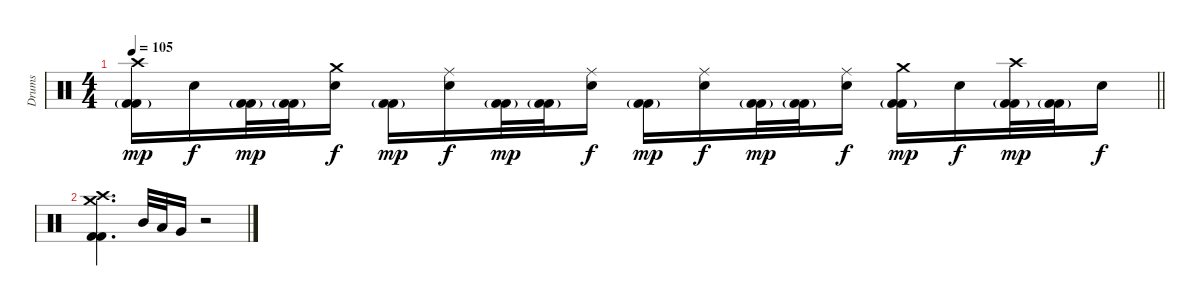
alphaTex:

\track ("Drums" "Drums") {instrument percussion}
\staff {score}
\articulation defaults
\ts (4 4)
\tempo 105
\clef neutral
\barLineRight lightlight
\ks c
("Crash high (hit)" "Kick (hit) 2"{g} "Kick (hit) 2").16{dy mp} "Electric Snare (hit)".16{dy f} ("Kick (hit) 2"{g} "Kick (hit) 2").32{dy mp} ("Kick (hit) 2"{g} "Kick (hit) 2").32 ("Crash medium (hit)" "Electric Snare (hit)").16{dy f} ("Kick (hit) 2"{g} "Kick (hit) 2").16{dy mp} ("Ride (middle)" "Electric Snare (hit)").16{dy f} ("Kick (hit) 2"{g} "Kick (hit) 2").32{dy mp} ("Kick (hit) 2"{g} "Kick (hit) 2").32 ("Ride (middle)" "Electric Snare (hit)").16{dy f} ("Kick (hit) 2"{g} "Kick (hit) 2").16{dy mp} ("Ride (middle)" "Electric Snare (hit)").16{dy f} ("Kick (hit) 2"{g} "Kick (hit) 2").32{dy mp} ("Kick (hit) 2"{g} "Kick (hit) 2").32 ("Ride (middle)" "Electric Snare (hit)").16{dy f} ("Crash medium (hit)" "Kick (hit) 2"{g} "Kick (hit) 2").16{dy mp} "Electric Snare (hit)".16{dy f} ("Crash high (hit)" "Kick (hit) 2"{g} "Kick (hit) 2").32{dy mp} ("Kick (hit) 2"{g} "Kick (hit) 2").32 "Electric Snare (hit)".16{dy f} |
("Crash high (hit)" "Crash medium (hit)" "Kick (hit) 2" "Kick (hit) 2").4{d} "Mid Tom (hit)".32 "Low Tom (hit)".32 "Very Low Tom (hit)".16 r.2
